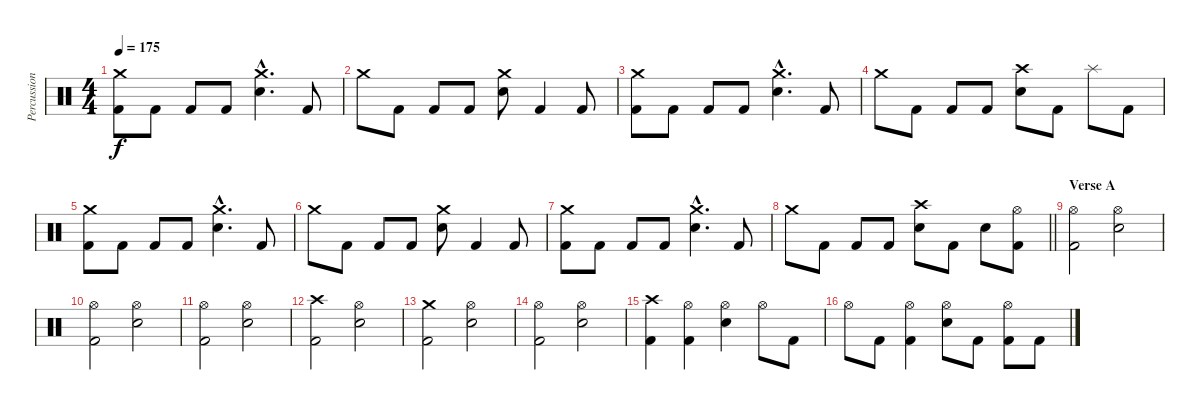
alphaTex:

\track ("Percussion" "Percussion") {instrument percussion}
\staff {score}
\articulation defaults
\ts (4 4)
\tempo 175
\clef neutral
\ks c
("Crash medium (hit)" "Kick (hit) 2").8{dy f} "Kick (hit) 2".8 "Kick (hit) 2".8 "Kick (hit) 2".8 ("Crash medium (hit)"{hac} "Electric Snare (hit)"{hac}).4{d} "Kick (hit) 2".8 |
"Crash medium (hit)".8 "Kick (hit) 2".8 "Kick (hit) 2".8 "Kick (hit) 2".8 ("Crash medium (hit)" "Electric Snare (hit)").8 "Kick (hit) 2".4 "Kick (hit) 2".8 |
("Crash medium (hit)" "Kick (hit) 2").8 "Kick (hit) 2".8 "Kick (hit) 2".8 "Kick (hit) 2".8 ("Crash medium (hit)"{hac} "Electric Snare (hit)"{hac}).4{d} "Kick (hit) 2".8 |
"Crash medium (hit)".8 "Kick (hit) 2".8 "Kick (hit) 2".8 "Kick (hit) 2".8 ("Crash high (hit)" "Electric Snare (hit)").8 "Kick (hit) 2".8 "Splash (hit)".8 "Kick (hit) 2".8 |
("Crash medium (hit)" "Kick (hit) 2").8 "Kick (hit) 2".8 "Kick (hit) 2".8 "Kick (hit) 2".8 ("Crash medium (hit)"{hac} "Electric Snare (hit)"{hac}).4{d} "Kick (hit) 2".8 |
"Crash medium (hit)".8 "Kick (hit) 2".8 "Kick (hit) 2".8 "Kick (hit) 2".8 ("Crash medium (hit)" "Electric Snare (hit)").8 "Kick (hit) 2".4 "Kick (hit) 2".8 |
("Crash medium (hit)" "Kick (hit) 2").8 "Kick (hit) 2".8 "Kick (hit) 2".8 "Kick (hit) 2".8 ("Crash medium (hit)"{hac} "Electric Snare (hit)"{hac}).4{d} "Kick (hit) 2".8 |
\barLineRight lightlight "Crash medium (hit)".8 "Kick (hit) 2".8 "Kick (hit) 2".8 "Kick (hit) 2".8
("Crash high (hit)" "Electric Snare (hit)").8 "Kick (hit) 2".8 "Electric Snare (hit)".8 ("Hi-Hat (open)" "Kick (hit) 2").8 |
\section ("" "Verse A")
("Hi-Hat (open)" "Kick (hit) 2").2 ("Hi-Hat (open)" "Electric Snare (hit)").2 |
("Hi-Hat (open)" "Kick (hit) 2").2 ("Hi-Hat (open)" "Electric Snare (hit)").2 |
("Hi-Hat (open)" "Kick (hit) 2").2 ("Hi-Hat (open)" "Electric Snare (hit)").2 |
("Crash high (hit)" "Kick (hit) 2").2 ("Hi-Hat (open)" "Electric Snare (hit)").2 |
("Crash medium (hit)" "Kick (hit) 2").2 ("Hi-Hat (open)" "Electric Snare (hit)").2 |
("Hi-Hat (open)" "Kick (hit) 2").2 ("Hi-Hat (open)" "Electric Snare (hit)").2 |
("Crash high (hit)" "Kick (hit) 2").4 ("Hi-Hat (open)" "Kick (hit) 2").4 ("Hi-Hat (open)" "Electric Snare (hit)").4 "Hi-Hat (open)".8 "Kick (hit) 2".8 |
"Hi-Hat (open)".8 "Kick (hit) 2".8 ("Hi-Hat (open)" "Kick (hit) 2").4 ("Hi-Hat (open)" "Electric Snare (hit)").8 "Kick (hit) 2".8 ("Hi-Hat (open)" "Kick (hit) 2").8 "Kick (hit) 2".8
